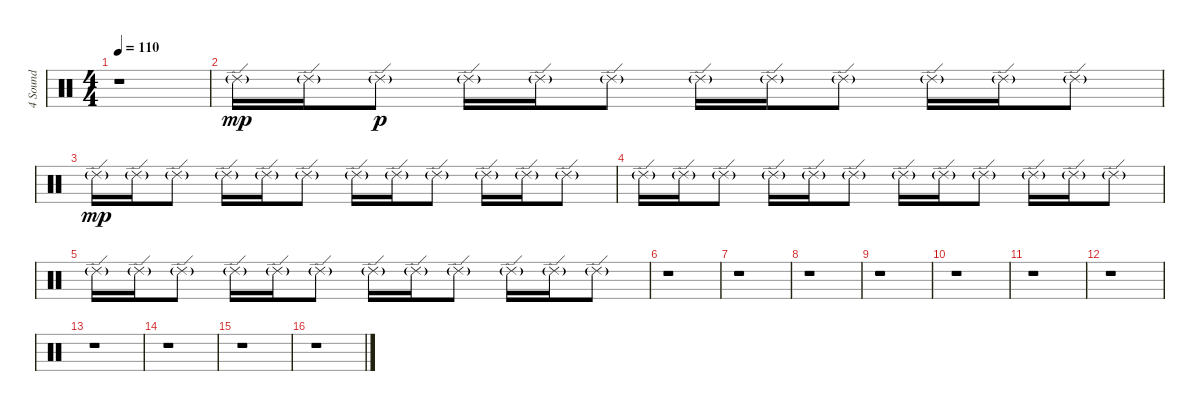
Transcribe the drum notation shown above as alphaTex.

\track ("4 Sound" "4 Sound") {instrument percussion}
\staff {score}
\articulation defaults
\ts (4 4)
\tempo 110
\clef neutral
\ks c
r.1{dy mp} |
"Ride (edge) 2"{g}.16 "Ride (edge) 2"{g}.16 "Ride (edge) 2"{g}.8{dy p} "Ride (edge) 2"{g}.16 "Ride (edge) 2"{g}.16 "Ride (edge) 2"{g}.8 "Ride (edge) 2"{g}.16 "Ride (edge) 2"{g}.16 "Ride (edge) 2"{g}.8 "Ride (edge) 2"{g}.16 "Ride (edge) 2"{g}.16 "Ride (edge) 2"{g}.8 |
"Ride (edge) 2"{g}.16{dy mp} "Ride (edge) 2"{g}.16 "Ride (edge) 2"{g}.8 "Ride (edge) 2"{g}.16 "Ride (edge) 2"{g}.16 "Ride (edge) 2"{g}.8 "Ride (edge) 2"{g}.16 "Ride (edge) 2"{g}.16 "Ride (edge) 2"{g}.8 "Ride (edge) 2"{g}.16 "Ride (edge) 2"{g}.16 "Ride (edge) 2"{g}.8 |
"Ride (edge) 2"{g}.16 "Ride (edge) 2"{g}.16 "Ride (edge) 2"{g}.8 "Ride (edge) 2"{g}.16 "Ride (edge) 2"{g}.16 "Ride (edge) 2"{g}.8 "Ride (edge) 2"{g}.16 "Ride (edge) 2"{g}.16 "Ride (edge) 2"{g}.8 "Ride (edge) 2"{g}.16 "Ride (edge) 2"{g}.16 "Ride (edge) 2"{g}.8 |
"Ride (edge) 2"{g}.16 "Ride (edge) 2"{g}.16 "Ride (edge) 2"{g}.8 "Ride (edge) 2"{g}.16 "Ride (edge) 2"{g}.16 "Ride (edge) 2"{g}.8 "Ride (edge) 2"{g}.16 "Ride (edge) 2"{g}.16 "Ride (edge) 2"{g}.8 "Ride (edge) 2"{g}.16 "Ride (edge) 2"{g}.16 "Ride (edge) 2"{g}.8 |
r.1 |
r.1 |
r.1 |
r.1 |
r.1 |
r.1 |
r.1 |
r.1 |
r.1 |
r.1 |
r.1
